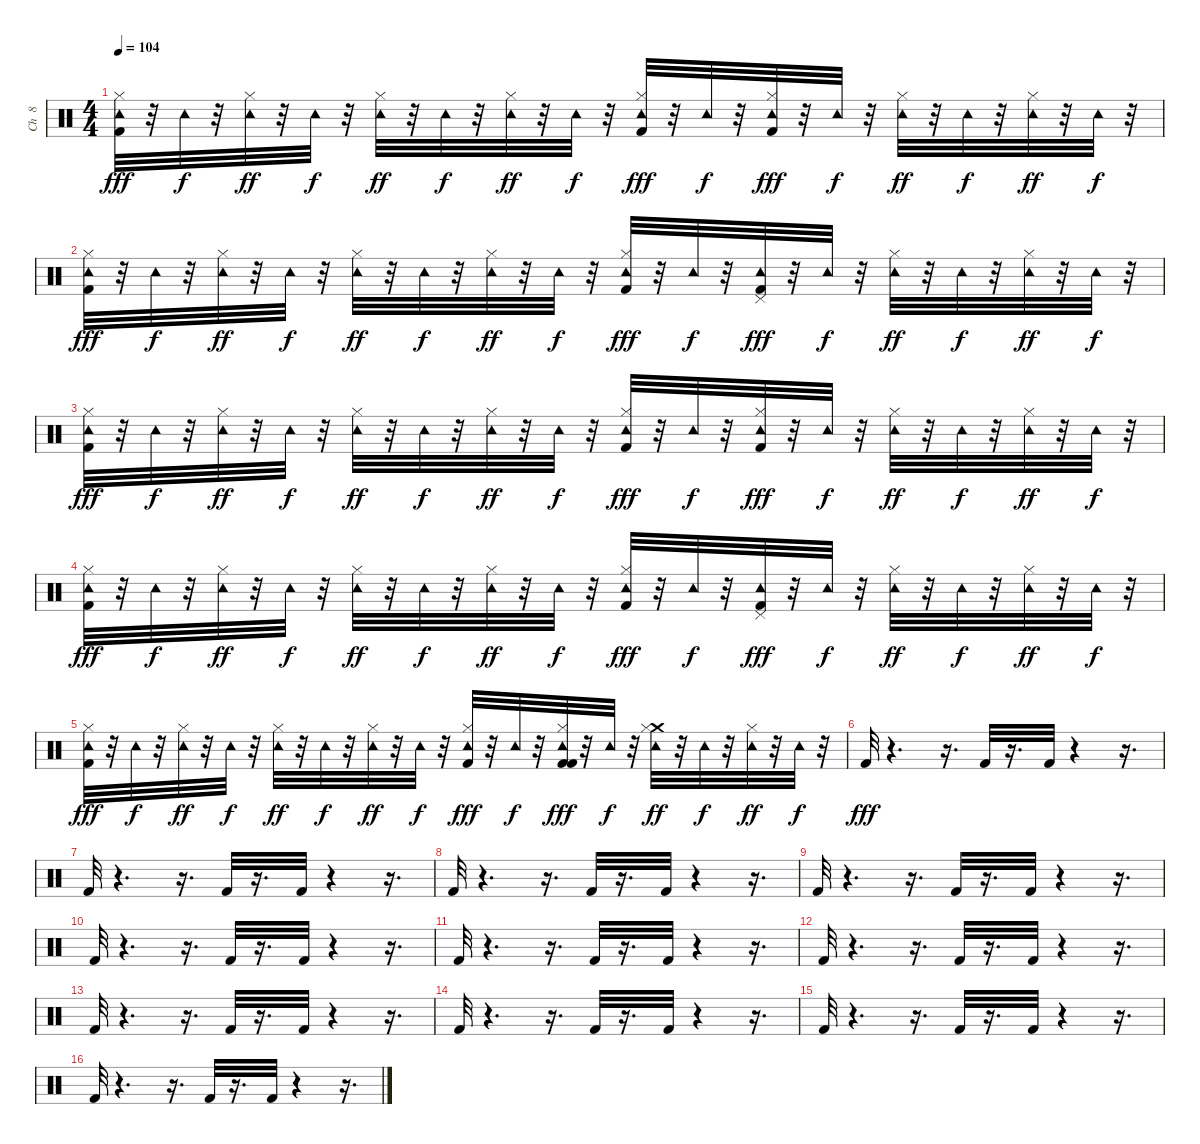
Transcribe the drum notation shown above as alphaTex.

\track ("Ch  8   " "Ch  8   ") {instrument percussion}
\staff {score}
\articulation defaults
\ts (4 4)
\tempo 104
\clef neutral
\ks c
("Tambourine (hit)" "Hi-Hat (closed)" "Kick (hit) 2").32{dy fff} r.32 "Tambourine (hit)".32{dy f} r.32 ("Tambourine (hit)" "Hi-Hat (closed)").32{dy ff} r.32 "Tambourine (hit)".32{dy f} r.32 ("Tambourine (hit)" "Hi-Hat (closed)").32{dy ff} r.32 "Tambourine (hit)".32{dy f} r.32 ("Tambourine (hit)" "Hi-Hat (closed)").32{dy ff} r.32 "Tambourine (hit)".32{dy f} r.32 ("Tambourine (hit)" "Hi-Hat (closed)" "Kick (hit) 2").32{dy fff} r.32 "Tambourine (hit)".32{dy f} r.32 ("Tambourine (hit)" "Hi-Hat (closed)" "Kick (hit) 2").32{dy fff} r.32 "Tambourine (hit)".32{dy f} r.32 ("Tambourine (hit)" "Hi-Hat (closed)").32{dy ff} r.32 "Tambourine (hit)".32{dy f} r.32 ("Tambourine (hit)" "Hi-Hat (closed)").32{dy ff} r.32 "Tambourine (hit)".32{dy f} r.32 |
("Tambourine (hit)" "Hi-Hat (closed)" "Kick (hit) 2").32{dy fff} r.32 "Tambourine (hit)".32{dy f} r.32 ("Tambourine (hit)" "Hi-Hat (closed)").32{dy ff} r.32 "Tambourine (hit)".32{dy f} r.32 ("Tambourine (hit)" "Hi-Hat (closed)").32{dy ff} r.32 "Tambourine (hit)".32{dy f} r.32 ("Tambourine (hit)" "Hi-Hat (closed)").32{dy ff} r.32 "Tambourine (hit)".32{dy f} r.32 ("Tambourine (hit)" "Hi-Hat (closed)" "Kick (hit) 2").32{dy fff} r.32 "Tambourine (hit)".32{dy f} r.32 ("Pedal Hi-Hat (hit)" "Tambourine (hit)" "Kick (hit) 2").32{dy fff} r.32 "Tambourine (hit)".32{dy f} r.32 ("Tambourine (hit)" "Hi-Hat (closed)").32{dy ff} r.32 "Tambourine (hit)".32{dy f} r.32 ("Tambourine (hit)" "Hi-Hat (closed)").32{dy ff} r.32 "Tambourine (hit)".32{dy f} r.32 |
("Tambourine (hit)" "Hi-Hat (closed)" "Kick (hit) 2").32{dy fff} r.32 "Tambourine (hit)".32{dy f} r.32 ("Tambourine (hit)" "Hi-Hat (closed)").32{dy ff} r.32 "Tambourine (hit)".32{dy f} r.32 ("Tambourine (hit)" "Hi-Hat (closed)").32{dy ff} r.32 "Tambourine (hit)".32{dy f} r.32 ("Tambourine (hit)" "Hi-Hat (closed)").32{dy ff} r.32 "Tambourine (hit)".32{dy f} r.32 ("Tambourine (hit)" "Hi-Hat (closed)" "Kick (hit) 2").32{dy fff} r.32 "Tambourine (hit)".32{dy f} r.32 ("Tambourine (hit)" "Hi-Hat (closed)" "Kick (hit) 2").32{dy fff} r.32 "Tambourine (hit)".32{dy f} r.32 ("Tambourine (hit)" "Hi-Hat (closed)").32{dy ff} r.32 "Tambourine (hit)".32{dy f} r.32 ("Tambourine (hit)" "Hi-Hat (closed)").32{dy ff} r.32 "Tambourine (hit)".32{dy f} r.32 |
("Tambourine (hit)" "Hi-Hat (closed)" "Kick (hit) 2").32{dy fff} r.32 "Tambourine (hit)".32{dy f} r.32 ("Tambourine (hit)" "Hi-Hat (closed)").32{dy ff} r.32 "Tambourine (hit)".32{dy f} r.32 ("Tambourine (hit)" "Hi-Hat (closed)").32{dy ff} r.32 "Tambourine (hit)".32{dy f} r.32 ("Tambourine (hit)" "Hi-Hat (closed)").32{dy ff} r.32 "Tambourine (hit)".32{dy f} r.32 ("Tambourine (hit)" "Hi-Hat (closed)" "Kick (hit) 2").32{dy fff} r.32 "Tambourine (hit)".32{dy f} r.32 ("Pedal Hi-Hat (hit)" "Tambourine (hit)" "Kick (hit) 2").32{dy fff} r.32 "Tambourine (hit)".32{dy f} r.32 ("Tambourine (hit)" "Hi-Hat (closed)").32{dy ff} r.32 "Tambourine (hit)".32{dy f} r.32 ("Tambourine (hit)" "Hi-Hat (closed)").32{dy ff} r.32 "Tambourine (hit)".32{dy f} r.32 |
("Tambourine (hit)" "Hi-Hat (closed)" "Kick (hit) 2").32{dy fff} r.32 "Tambourine (hit)".32{dy f} r.32 ("Tambourine (hit)" "Hi-Hat (closed)").32{dy ff} r.32 "Tambourine (hit)".32{dy f} r.32 ("Tambourine (hit)" "Hi-Hat (closed)").32{dy ff} r.32 "Tambourine (hit)".32{dy f} r.32 ("Tambourine (hit)" "Hi-Hat (closed)").32{dy ff} r.32 "Tambourine (hit)".32{dy f} r.32 ("Tambourine (hit)" "Hi-Hat (closed)" "Kick (hit) 2").32{dy fff} r.32 "Tambourine (hit)".32{dy f} r.32 ("Tambourine (hit)" "Hi-Hat (closed)" "Kick (hit) 2" "Kick (hit) 2").32{dy fff} r.32 "Tambourine (hit)".32{dy f} r.32 ("Tambourine (hit)" "Crash medium (hit)" "Hi-Hat (closed)").32{dy ff} r.32 "Tambourine (hit)".32{dy f} r.32 ("Tambourine (hit)" "Hi-Hat (closed)").32{dy ff} r.32 "Tambourine (hit)".32{dy f} r.32 |
"Kick (hit) 2".32{dy fff} r.4{d} r.16{d} "Kick (hit) 2".32 r.16{d} "Kick (hit) 2".32 r.4 r.16{d} |
"Kick (hit) 2".32 r.4{d} r.16{d} "Kick (hit) 2".32 r.16{d} "Kick (hit) 2".32 r.4 r.16{d} |
"Kick (hit) 2".32 r.4{d} r.16{d} "Kick (hit) 2".32 r.16{d} "Kick (hit) 2".32 r.4 r.16{d} |
"Kick (hit) 2".32 r.4{d} r.16{d} "Kick (hit) 2".32 r.16{d} "Kick (hit) 2".32 r.4 r.16{d} |
"Kick (hit) 2".32 r.4{d} r.16{d} "Kick (hit) 2".32 r.16{d} "Kick (hit) 2".32 r.4 r.16{d} |
"Kick (hit) 2".32 r.4{d} r.16{d} "Kick (hit) 2".32 r.16{d} "Kick (hit) 2".32 r.4 r.16{d} |
"Kick (hit) 2".32 r.4{d} r.16{d} "Kick (hit) 2".32 r.16{d} "Kick (hit) 2".32 r.4 r.16{d} |
"Kick (hit) 2".32 r.4{d} r.16{d} "Kick (hit) 2".32 r.16{d} "Kick (hit) 2".32 r.4 r.16{d} |
"Kick (hit) 2".32 r.4{d} r.16{d} "Kick (hit) 2".32 r.16{d} "Kick (hit) 2".32 r.4 r.16{d} |
"Kick (hit) 2".32 r.4{d} r.16{d} "Kick (hit) 2".32 r.16{d} "Kick (hit) 2".32 r.4 r.16{d} |
"Kick (hit) 2".32 r.4{d} r.16{d} "Kick (hit) 2".32 r.16{d} "Kick (hit) 2".32 r.4 r.16{d}
